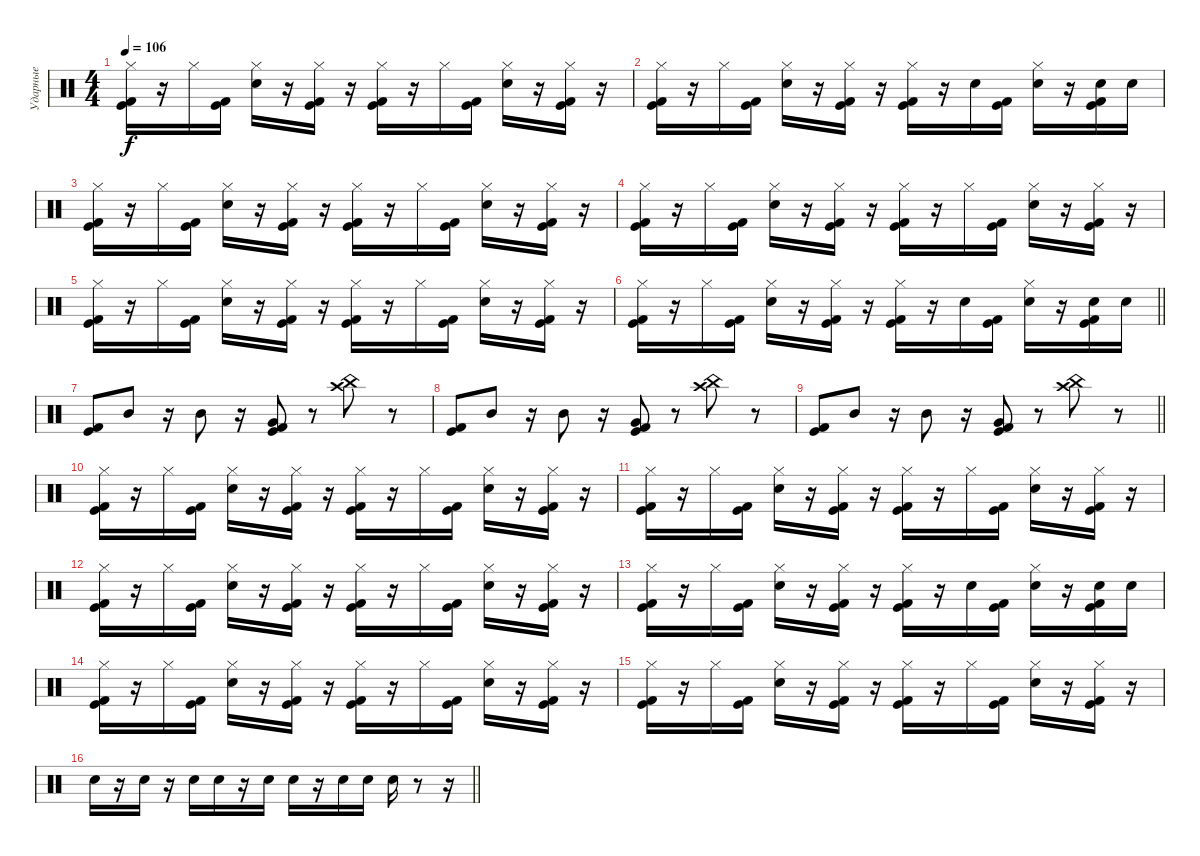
\track ("Ударные" "Ударные") {instrument percussion}
\staff {score}
\articulation defaults
\ts (4 4)
\tempo 106
\clef neutral
\ks c
("Hi-Hat (closed)" "Kick (hit) 2" "Kick (hit)").16{dy f} r.16 "Hi-Hat (closed)".16 ("Kick (hit) 2" "Kick (hit)").16 ("Hi-Hat (closed)" "Electric Snare (hit)").16 r.16 ("Hi-Hat (closed)" "Kick (hit) 2" "Kick (hit)").16 r.16 ("Hi-Hat (closed)" "Kick (hit) 2" "Kick (hit)").16 r.16 "Hi-Hat (closed)".16 ("Kick (hit) 2" "Kick (hit)").16 ("Hi-Hat (closed)" "Electric Snare (hit)").16 r.16 ("Hi-Hat (closed)" "Kick (hit) 2" "Kick (hit)").16 r.16 |
("Hi-Hat (closed)" "Kick (hit) 2" "Kick (hit)").16 r.16 "Hi-Hat (closed)".16 ("Kick (hit) 2" "Kick (hit)").16 ("Hi-Hat (closed)" "Electric Snare (hit)").16 r.16 ("Hi-Hat (closed)" "Kick (hit) 2" "Kick (hit)").16 r.16 ("Hi-Hat (closed)" "Kick (hit) 2" "Kick (hit)").16 r.16 "Electric Snare (hit)".16 ("Kick (hit) 2" "Kick (hit)").16 ("Hi-Hat (closed)" "Electric Snare (hit)").16 r.16 ("Electric Snare (hit)" "Kick (hit) 2" "Kick (hit)").16 "Electric Snare (hit)".16 |
("Hi-Hat (closed)" "Kick (hit) 2" "Kick (hit)").16 r.16 "Hi-Hat (closed)".16 ("Kick (hit) 2" "Kick (hit)").16 ("Hi-Hat (closed)" "Electric Snare (hit)").16 r.16 ("Hi-Hat (closed)" "Kick (hit) 2" "Kick (hit)").16 r.16 ("Hi-Hat (closed)" "Kick (hit) 2" "Kick (hit)").16 r.16 "Hi-Hat (closed)".16 ("Kick (hit) 2" "Kick (hit)").16 ("Hi-Hat (closed)" "Electric Snare (hit)").16 r.16 ("Hi-Hat (closed)" "Kick (hit) 2" "Kick (hit)").16 r.16 |
("Hi-Hat (closed)" "Kick (hit) 2" "Kick (hit)").16 r.16 "Hi-Hat (closed)".16 ("Kick (hit) 2" "Kick (hit)").16 ("Hi-Hat (closed)" "Electric Snare (hit)").16 r.16 ("Hi-Hat (closed)" "Kick (hit) 2" "Kick (hit)").16 r.16 ("Hi-Hat (closed)" "Kick (hit) 2" "Kick (hit)").16 r.16 "Hi-Hat (closed)".16 ("Kick (hit) 2" "Kick (hit)").16 ("Hi-Hat (closed)" "Electric Snare (hit)").16 r.16 ("Hi-Hat (closed)" "Kick (hit) 2" "Kick (hit)").16 r.16 |
("Hi-Hat (closed)" "Kick (hit) 2" "Kick (hit)").16 r.16 "Hi-Hat (closed)".16 ("Kick (hit) 2" "Kick (hit)").16 ("Hi-Hat (closed)" "Electric Snare (hit)").16 r.16 ("Hi-Hat (closed)" "Kick (hit) 2" "Kick (hit)").16 r.16 ("Hi-Hat (closed)" "Kick (hit) 2" "Kick (hit)").16 r.16 "Hi-Hat (closed)".16 ("Kick (hit) 2" "Kick (hit)").16 ("Hi-Hat (closed)" "Electric Snare (hit)").16 r.16 ("Hi-Hat (closed)" "Kick (hit) 2" "Kick (hit)").16 r.16 |
\barLineRight lightlight
("Hi-Hat (closed)" "Kick (hit) 2" "Kick (hit)").16 r.16 "Hi-Hat (closed)".16 ("Kick (hit) 2" "Kick (hit)").16 ("Hi-Hat (closed)" "Electric Snare (hit)").16 r.16 ("Hi-Hat (closed)" "Kick (hit) 2" "Kick (hit)").16 r.16 ("Hi-Hat (closed)" "Kick (hit) 2" "Kick (hit)").16 r.16 "Electric Snare (hit)".16 ("Kick (hit) 2" "Kick (hit)").16 ("Hi-Hat (closed)" "Electric Snare (hit)").16 r.16 ("Electric Snare (hit)" "Kick (hit) 2" "Kick (hit)").16 "Electric Snare (hit)".16 |
("Kick (hit) 2" "Kick (hit)").8 "Mid Tom (hit)".8 r.16 "Mid Tom (hit)".8 r.16 ("Very Low Tom (hit)" "Kick (hit) 2" "Kick (hit)").8 r.8 ("Crash high (hit)" "China (hit)").8 r.8 |
("Kick (hit) 2" "Kick (hit)").8 "Mid Tom (hit)".8 r.16 "Mid Tom (hit)".8 r.16 ("Very Low Tom (hit)" "Kick (hit) 2" "Kick (hit)").8 r.8 ("Crash high (hit)" "China (hit)").8 r.8 |
\barLineRight lightlight
("Kick (hit) 2" "Kick (hit)").8 "Mid Tom (hit)".8 r.16 "Mid Tom (hit)".8 r.16 ("Very Low Tom (hit)" "Kick (hit) 2" "Kick (hit)").8 r.8 ("Crash high (hit)" "China (hit)").8 r.8 |
("Hi-Hat (closed)" "Kick (hit) 2" "Kick (hit)").16 r.16 "Hi-Hat (closed)".16 ("Kick (hit) 2" "Kick (hit)").16 ("Hi-Hat (closed)" "Electric Snare (hit)").16 r.16 ("Hi-Hat (closed)" "Kick (hit) 2" "Kick (hit)").16 r.16 ("Hi-Hat (closed)" "Kick (hit) 2" "Kick (hit)").16 r.16 "Hi-Hat (closed)".16 ("Kick (hit) 2" "Kick (hit)").16 ("Hi-Hat (closed)" "Electric Snare (hit)").16 r.16 ("Hi-Hat (closed)" "Kick (hit) 2" "Kick (hit)").16 r.16 |
("Hi-Hat (closed)" "Kick (hit) 2" "Kick (hit)").16 r.16 "Hi-Hat (closed)".16 ("Kick (hit) 2" "Kick (hit)").16 ("Hi-Hat (closed)" "Electric Snare (hit)").16 r.16 ("Hi-Hat (closed)" "Kick (hit) 2" "Kick (hit)").16 r.16 ("Hi-Hat (closed)" "Kick (hit) 2" "Kick (hit)").16 r.16 "Hi-Hat (closed)".16 ("Kick (hit) 2" "Kick (hit)").16 ("Hi-Hat (closed)" "Electric Snare (hit)").16 r.16 ("Hi-Hat (closed)" "Kick (hit) 2" "Kick (hit)").16 r.16 |
("Hi-Hat (closed)" "Kick (hit) 2" "Kick (hit)").16 r.16 "Hi-Hat (closed)".16 ("Kick (hit) 2" "Kick (hit)").16 ("Hi-Hat (closed)" "Electric Snare (hit)").16 r.16 ("Hi-Hat (closed)" "Kick (hit) 2" "Kick (hit)").16 r.16 ("Hi-Hat (closed)" "Kick (hit) 2" "Kick (hit)").16 r.16 "Hi-Hat (closed)".16 ("Kick (hit) 2" "Kick (hit)").16 ("Hi-Hat (closed)" "Electric Snare (hit)").16 r.16 ("Hi-Hat (closed)" "Kick (hit) 2" "Kick (hit)").16 r.16 |
("Hi-Hat (closed)" "Kick (hit) 2" "Kick (hit)").16 r.16 "Hi-Hat (closed)".16 ("Kick (hit) 2" "Kick (hit)").16 ("Hi-Hat (closed)" "Electric Snare (hit)").16 r.16 ("Hi-Hat (closed)" "Kick (hit) 2" "Kick (hit)").16 r.16 ("Hi-Hat (closed)" "Kick (hit) 2" "Kick (hit)").16 r.16 "Electric Snare (hit)".16 ("Kick (hit) 2" "Kick (hit)").16 ("Hi-Hat (closed)" "Electric Snare (hit)").16 r.16 ("Electric Snare (hit)" "Kick (hit) 2" "Kick (hit)").16 "Electric Snare (hit)".16 |
("Hi-Hat (closed)" "Kick (hit) 2" "Kick (hit)").16 r.16 "Hi-Hat (closed)".16 ("Kick (hit) 2" "Kick (hit)").16 ("Hi-Hat (closed)" "Electric Snare (hit)").16 r.16 ("Hi-Hat (closed)" "Kick (hit) 2" "Kick (hit)").16 r.16 ("Hi-Hat (closed)" "Kick (hit) 2" "Kick (hit)").16 r.16 "Hi-Hat (closed)".16 ("Kick (hit) 2" "Kick (hit)").16 ("Hi-Hat (closed)" "Electric Snare (hit)").16 r.16 ("Hi-Hat (closed)" "Kick (hit) 2" "Kick (hit)").16 r.16 |
("Hi-Hat (closed)" "Kick (hit) 2" "Kick (hit)").16 r.16 "Hi-Hat (closed)".16 ("Kick (hit) 2" "Kick (hit)").16 ("Hi-Hat (closed)" "Electric Snare (hit)").16 r.16 ("Hi-Hat (closed)" "Kick (hit) 2" "Kick (hit)").16 r.16 ("Hi-Hat (closed)" "Kick (hit) 2" "Kick (hit)").16 r.16 "Hi-Hat (closed)".16 ("Kick (hit) 2" "Kick (hit)").16 ("Hi-Hat (closed)" "Electric Snare (hit)").16 r.16 ("Hi-Hat (closed)" "Kick (hit) 2" "Kick (hit)").16 r.16 |
\barLineRight lightlight "Electric Snare (hit)".16
r.16 "Electric Snare (hit)".16 r.16 "Electric Snare (hit)".16 "Electric Snare (hit)".16 r.16 "Electric Snare (hit)".16 "Electric Snare (hit)".16 r.16 "Electric Snare (hit)".16 "Electric Snare (hit)".16 "Electric Snare (hit)".16 r.8 r.16
